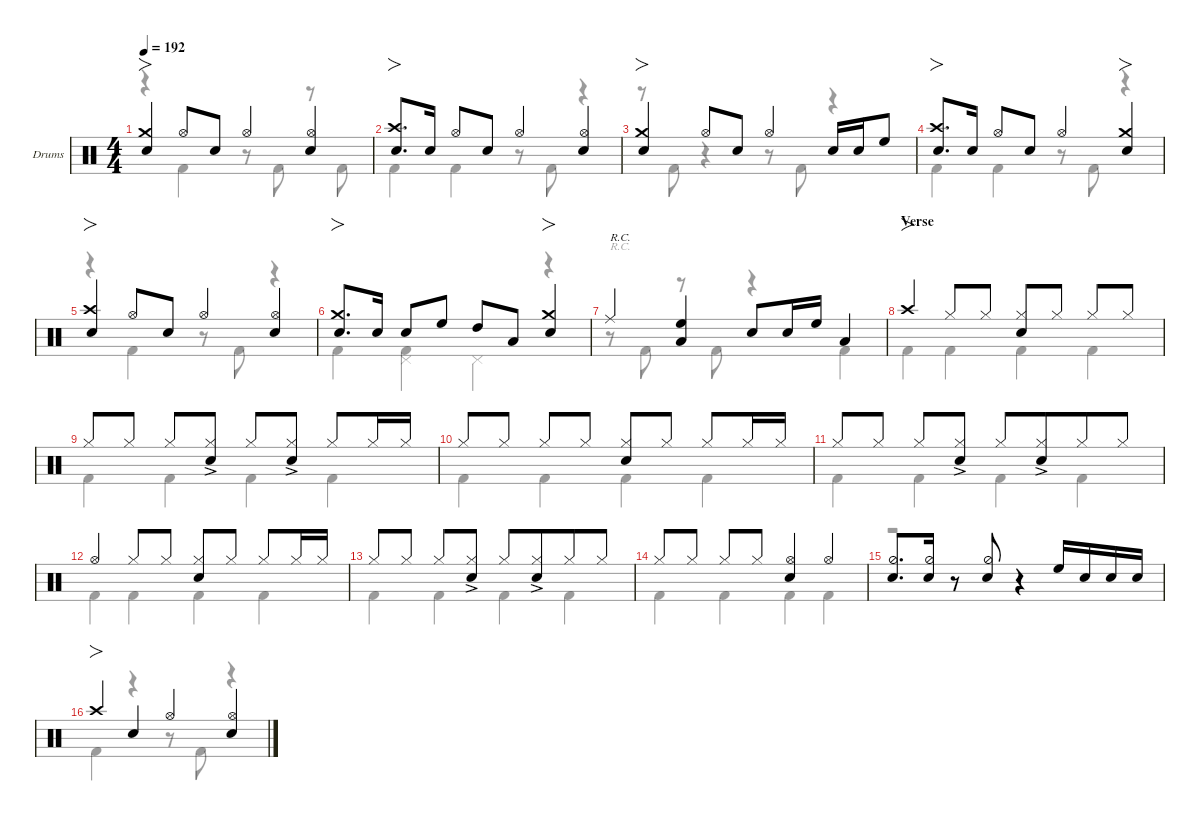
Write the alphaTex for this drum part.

\defaultSystemsLayout 4
\hideDynamics
\bracketExtendMode nobrackets
\firstSystemTrackNameOrientation horizontal
\track ("Drums" "Drums") {defaultSystemsLayout 4 instrument percussion}
\staff {score}
\articulation defaults
\voice
\ts (4 4)
\tempo 192
\clef neutral
\scale
0.245092
\ks c
("Snare (hit) 2" "Crash medium (hit)").4{fo dy f beam Up} "Hi-Hat (open)".8{beam Up} "Snare (hit) 2".8{beam Up} "Hi-Hat (open)".4{beam Up} ("Hi-Hat (open)" "Snare (hit) 2").4{beam Up} |
\scale
0.241618 ("Crash high (hit)" "Snare (hit) 2").8{fo d beam Up} "Snare (hit) 2".16{beam Up beam split} "Hi-Hat (open)".8{beam Up beam merge} "Snare (hit) 2".8{beam Up} "Hi-Hat (open)".4{beam Up} ("Hi-Hat (open)" "Snare (hit) 2").4{beam Up} |
\scale
0.247776 ("Snare (hit) 2" "Crash medium (hit)").4{fo beam Up} "Hi-Hat (open)".8{beam Up} "Snare (hit) 2".8{beam Up} "Hi-Hat (open)".4{beam Up} "Snare (hit) 2".16{beam Up} "Snare (hit) 2".16{dy mf beam Up} "High Floor Tom (hit)".8{dy f beam Up} |
\scale
0.265513 ("Crash high (hit)" "Snare (hit) 2").8{fo d beam Up} "Snare (hit) 2".16{beam Up beam split} "Hi-Hat (open)".8{beam Up beam merge} "Snare (hit) 2".8{beam Up} "Hi-Hat (open)".4{beam Up} ("Crash medium (hit)" "Snare (hit) 2").4{fo beam Up} |
\scale
0.245092 ("Snare (hit) 2" "Crash high (hit)").4{fo beam Up} "Hi-Hat (open)".8{beam Up} "Snare (hit) 2".8{beam Up} "Hi-Hat (open)".4{beam Up} ("Hi-Hat (open)" "Snare (hit) 2").4{beam Up} |
\scale
0.241618 ("Crash medium (hit)" "Snare (hit) 2").8{fo d beam Up} "Snare (hit) 2".16{beam Up beam split} "Snare (hit) 2".8{beam Up} "High Floor Tom (hit)".8{beam Up} "High Tom (hit)".8{beam Up} "Low Tom (hit)".8{beam Up} ("Snare (hit) 2" "Crash medium (hit)").4{fo beam Up} |
\scale
0.247776 "Ride (middle)".4{txt "R.C." beam Up} ("High Floor Tom (hit)" "Low Tom (hit)").4{beam Up} "Snare (hit) 2".8{beam Up} "Snare (hit) 2".16{beam Up} "High Floor Tom (hit)".16{beam Up} "Low Tom (hit)".4{beam Up} |
\section ("" "Verse")
\scale
0.266618 "Crash high (hit)".4{fo beam Up} "Hi-Hat (closed)".8{beam Up} "Hi-Hat (closed)".8{dy mf beam Up} ("Hi-Hat (closed)" "Snare (hit) 2").8{dy f beam Up} "Hi-Hat (closed)".8{dy mf beam Up} "Hi-Hat (closed)".8{dy f beam Up} "Hi-Hat (closed)".8{dy mf beam Up} |
\scale
0.244461 "Hi-Hat (closed)".8{dy f beam Up} "Hi-Hat (closed)".8{dy mf beam Up} "Hi-Hat (closed)".8{dy f beam Up} ("Hi-Hat (closed)"{ac} "Snare (hit) 2").8{beam Up} "Hi-Hat (closed)".8{beam Up} ("Hi-Hat (closed)"{ac} "Snare (hit) 2").8{beam Up beam split} "Hi-Hat (closed)".8{beam Up} "Hi-Hat (closed)".16{beam Up} "Hi-Hat (closed)".16{dy mf beam Up} |
\scale
0.241145 "Hi-Hat (closed)".8{dy f beam Up} "Hi-Hat (closed)".8{dy mf beam Up} "Hi-Hat (closed)".8{dy f beam Up} "Hi-Hat (closed)".8{dy mf beam Up} ("Hi-Hat (closed)" "Snare (hit) 2").8{dy f beam Up} "Hi-Hat (closed)".8{dy mf beam Up beam split} "Hi-Hat (closed)".8{dy f beam Up} "Hi-Hat (closed)".16{beam Up} "Hi-Hat (closed)".16{dy mf beam Up} |
\scale
0.247776 "Hi-Hat (closed)".8{dy f beam Up} "Hi-Hat (closed)".8{dy mf beam Up} "Hi-Hat (closed)".8{dy f beam Up} ("Hi-Hat (closed)"{ac} "Snare (hit) 2").8{beam Up} "Hi-Hat (closed)".8{beam Up} ("Hi-Hat (closed)"{ac} "Snare (hit) 2").8{beam Up beam merge} "Hi-Hat (closed)".8{beam Up} "Hi-Hat (closed)".8{dy mf beam Up} |
\scale
0.266618 "Hi-Hat (open)".4{dy f beam Up} "Hi-Hat (closed)".8{beam Up} "Hi-Hat (closed)".8{dy mf beam Up} ("Hi-Hat (closed)" "Snare (hit) 2").8{dy f beam Up} "Hi-Hat (closed)".8{dy mf beam Up beam split} "Hi-Hat (closed)".8{dy f beam Up} "Hi-Hat (closed)".16{beam Up} "Hi-Hat (closed)".16{dy mf beam Up} |
\scale
0.243987 "Hi-Hat (closed)".8{dy f beam Up} "Hi-Hat (closed)".8{dy mf beam Up} "Hi-Hat (closed)".8{dy f beam Up} ("Hi-Hat (closed)"{ac} "Snare (hit) 2").8{beam Up} "Hi-Hat (closed)".8{beam Up} ("Hi-Hat (closed)"{ac} "Snare (hit) 2").8{beam Up beam merge} "Hi-Hat (closed)".8{beam Up} "Hi-Hat (closed)".8{dy mf beam Up} |
\scale
0.241618 "Hi-Hat (closed)".8{dy f beam Up} "Hi-Hat (closed)".8{dy mf beam Up} "Hi-Hat (closed)".8{dy f beam Up} "Hi-Hat (closed)".8{dy mf beam Up} ("Hi-Hat (open)" "Snare (hit) 2").4{dy f beam Up} "Hi-Hat (open)".4{beam Up} |
\scale
0.247776 ("Hi-Hat (half)" "Snare (hit) 2").8{d beam Up} ("Hi-Hat (half)" "Snare (hit) 2").16{beam Up beam split} r.8{beam Up} ("Hi-Hat (half)" "Snare (hit) 2").8{beam Up} r.4{beam Up} "High Floor Tom (hit)".16{beam Up} "Snare (hit) 2".16{dy mf beam Up} "Snare (hit) 2".16{dy f beam Up} "Snare (hit) 2".16{dy mf beam Up} |
\scale
0.266618 "Crash high (hit)".4{fo dy f beam Up} "Snare (hit) 2".4{beam Up} "Hi-Hat (open)".4{beam Up} ("Hi-Hat (open)" "Snare (hit) 2").4{beam Up}
\voice
\clef neutral
\ottava regular
\simile none
\scale
0.245092
\ks c
r.4{dy f beam Down} "Kick (hit) 2".4{beam Down} r.8{beam Down} "Kick (hit) 2".8{beam Down} r.8{beam Down} "Kick (hit) 2".8{beam Down} |
\scale
0.241618 "Kick (hit) 2".4{beam Down} "Kick (hit) 2".4{beam Down} r.8{beam Down} "Kick (hit) 2".8{beam Down} r.4{beam Down} |
\scale
0.247776 r.8{beam Down} "Kick (hit) 2".8{beam Down} r.4{beam Down} r.8{beam Down} "Kick (hit) 2".8{beam Down} r.4{beam Down} |
\scale
0.265513 "Kick (hit) 2".4{beam Down} "Kick (hit) 2".4{beam Down} r.8{beam Down} "Kick (hit) 2".8{beam Down} r.4{beam Down} |
\scale
0.245092 r.4{beam Down} "Kick (hit) 2".4{beam Down} r.8{beam Down} "Kick (hit) 2".8{beam Down} r.4{beam Down} |
\scale
0.241618 "Kick (hit) 2".4{beam Down} ("Kick (hit) 2" "Pedal Hi-Hat (hit)").4{beam Down} "Pedal Hi-Hat (hit)".4{beam Down} r.4{beam Down} |
\scale
0.247776 r.8{txt "R.C." beam Down} "Kick (hit) 2".8{beam Down} r.8{beam Down} "Kick (hit) 2".8{beam Down} r.4{beam Down} "Kick (hit) 2".4{beam Down} |
\scale
0.266618 "Kick (hit) 2".4{beam Down} "Kick (hit) 2".4{beam Down} "Kick (hit) 2".4{beam Down} "Kick (hit) 2".4{beam Down} |
\scale
0.244461 "Kick (hit) 2".4{beam Down} "Kick (hit) 2".4{beam Down} "Kick (hit) 2".4{beam Down} "Kick (hit) 2".4{beam Down} |
\scale
0.241145 "Kick (hit) 2".4{beam Down} "Kick (hit) 2".4{beam Down} "Kick (hit) 2".4{beam Down} "Kick (hit) 2".4{beam Down} |
\scale
0.247776 "Kick (hit) 2".4{beam Down} "Kick (hit) 2".4{beam Down} "Kick (hit) 2".4{beam Down} "Kick (hit) 2".4{beam Down} |
\scale
0.266618 "Kick (hit) 2".4{beam Down} "Kick (hit) 2".4{beam Down} "Kick (hit) 2".4{beam Down} "Kick (hit) 2".4{beam Down} |
\scale
0.243987 "Kick (hit) 2".4{beam Down} "Kick (hit) 2".4{beam Down} "Kick (hit) 2".4{beam Down} "Kick (hit) 2".4{beam Down} |
\scale
0.241618 "Kick (hit) 2".4{beam Down} "Kick (hit) 2".4{beam Down} "Kick (hit) 2".4{beam Down} "Kick (hit) 2".4{beam Down} |
\scale
0.247776 r.1{beam Down} |
\scale
0.266618 "Kick (hit) 2".4{beam Down} r.4{beam Down} r.8{beam Down} "Kick (hit) 2".8{beam Down} r.4{beam Down}
